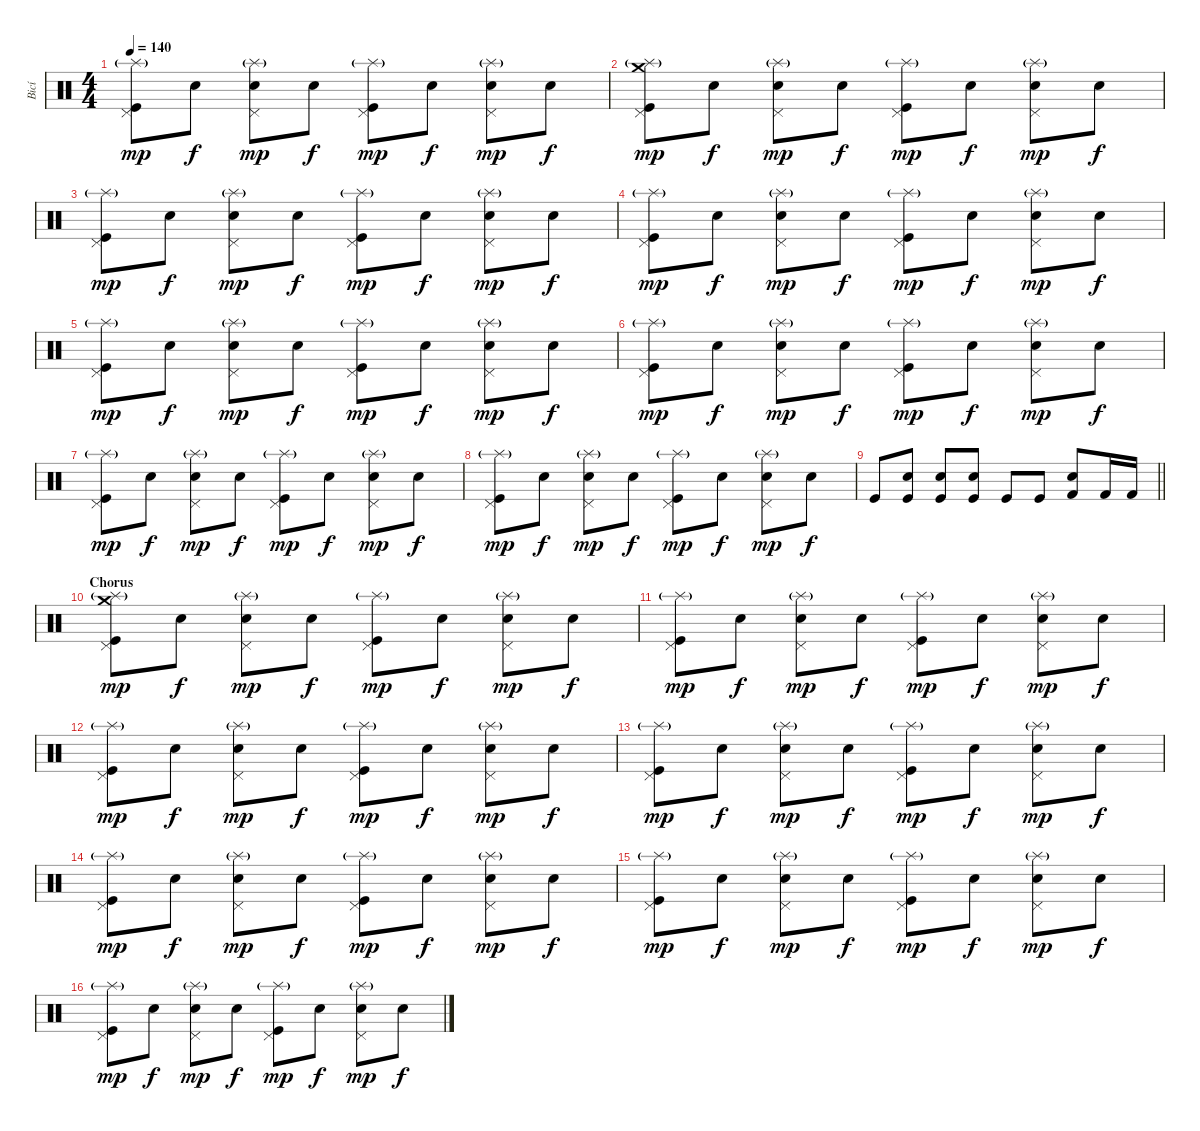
\track ("Bicí" "Bicí") {instrument percussion}
\staff {score}
\articulation defaults
\ts (4 4)
\tempo 140
\clef neutral
\ks c
("Splash (hit)"{g} "Pedal Hi-Hat (hit)" "Kick (hit)").8{dy mp} "Snare (hit)".8{dy f} ("Splash (hit)"{g} "Pedal Hi-Hat (hit)" "Electric Snare (hit)").8{dy mp} "Snare (hit)".8{dy f} ("Splash (hit)"{g} "Pedal Hi-Hat (hit)" "Kick (hit)").8{dy mp} "Snare (hit)".8{dy f} ("Splash (hit)"{g} "Pedal Hi-Hat (hit)" "Electric Snare (hit)").8{dy mp} "Snare (hit)".8{dy f} |
("Crash medium (hit)" "Splash (hit)"{g} "Pedal Hi-Hat (hit)" "Kick (hit)").8{dy mp} "Snare (hit)".8{dy f} ("Splash (hit)"{g} "Pedal Hi-Hat (hit)" "Electric Snare (hit)").8{dy mp} "Snare (hit)".8{dy f} ("Splash (hit)"{g} "Pedal Hi-Hat (hit)" "Kick (hit)").8{dy mp} "Snare (hit)".8{dy f} ("Splash (hit)"{g} "Pedal Hi-Hat (hit)" "Electric Snare (hit)").8{dy mp} "Snare (hit)".8{dy f} |
("Splash (hit)"{g} "Pedal Hi-Hat (hit)" "Kick (hit)").8{dy mp} "Snare (hit)".8{dy f} ("Splash (hit)"{g} "Pedal Hi-Hat (hit)" "Electric Snare (hit)").8{dy mp} "Snare (hit)".8{dy f} ("Splash (hit)"{g} "Pedal Hi-Hat (hit)" "Kick (hit)").8{dy mp} "Snare (hit)".8{dy f} ("Splash (hit)"{g} "Pedal Hi-Hat (hit)" "Electric Snare (hit)").8{dy mp} "Snare (hit)".8{dy f} |
("Splash (hit)"{g} "Pedal Hi-Hat (hit)" "Kick (hit)").8{dy mp} "Snare (hit)".8{dy f} ("Splash (hit)"{g} "Pedal Hi-Hat (hit)" "Electric Snare (hit)").8{dy mp} "Snare (hit)".8{dy f} ("Splash (hit)"{g} "Pedal Hi-Hat (hit)" "Kick (hit)").8{dy mp} "Snare (hit)".8{dy f} ("Splash (hit)"{g} "Pedal Hi-Hat (hit)" "Electric Snare (hit)").8{dy mp} "Snare (hit)".8{dy f} |
("Splash (hit)"{g} "Pedal Hi-Hat (hit)" "Kick (hit)").8{dy mp} "Snare (hit)".8{dy f} ("Splash (hit)"{g} "Pedal Hi-Hat (hit)" "Electric Snare (hit)").8{dy mp} "Snare (hit)".8{dy f} ("Splash (hit)"{g} "Pedal Hi-Hat (hit)" "Kick (hit)").8{dy mp} "Snare (hit)".8{dy f} ("Splash (hit)"{g} "Pedal Hi-Hat (hit)" "Electric Snare (hit)").8{dy mp} "Snare (hit)".8{dy f} |
("Splash (hit)"{g} "Pedal Hi-Hat (hit)" "Kick (hit)").8{dy mp} "Snare (hit)".8{dy f} ("Splash (hit)"{g} "Pedal Hi-Hat (hit)" "Electric Snare (hit)").8{dy mp} "Snare (hit)".8{dy f} ("Splash (hit)"{g} "Pedal Hi-Hat (hit)" "Kick (hit)").8{dy mp} "Snare (hit)".8{dy f} ("Splash (hit)"{g} "Pedal Hi-Hat (hit)" "Electric Snare (hit)").8{dy mp} "Snare (hit)".8{dy f} |
("Splash (hit)"{g} "Pedal Hi-Hat (hit)" "Kick (hit)").8{dy mp} "Snare (hit)".8{dy f} ("Splash (hit)"{g} "Pedal Hi-Hat (hit)" "Electric Snare (hit)").8{dy mp} "Snare (hit)".8{dy f} ("Splash (hit)"{g} "Pedal Hi-Hat (hit)" "Kick (hit)").8{dy mp} "Snare (hit)".8{dy f} ("Splash (hit)"{g} "Pedal Hi-Hat (hit)" "Electric Snare (hit)").8{dy mp} "Snare (hit)".8{dy f} |
("Splash (hit)"{g} "Pedal Hi-Hat (hit)" "Kick (hit)").8{dy mp} "Snare (hit)".8{dy f} ("Splash (hit)"{g} "Pedal Hi-Hat (hit)" "Electric Snare (hit)").8{dy mp} "Snare (hit)".8{dy f} ("Splash (hit)"{g} "Pedal Hi-Hat (hit)" "Kick (hit)").8{dy mp} "Snare (hit)".8{dy f} ("Splash (hit)"{g} "Pedal Hi-Hat (hit)" "Electric Snare (hit)").8{dy mp} "Snare (hit)".8{dy f} |
\barLineRight lightlight "Kick (hit)".8{volume 0}
("Kick (hit)" "Electric Snare (hit)").8{volume 16} ("Kick (hit)" "Electric Snare (hit)").8 ("Kick (hit)" "Electric Snare (hit)").8 "Kick (hit)".8 "Kick (hit)".8 ("Electric Snare (hit)" "Kick (hit) 2").8 "Kick (hit) 2".16 "Kick (hit) 2".16 |
\section ("" "Chorus")
("Crash medium (hit)" "Splash (hit)"{g} "Pedal Hi-Hat (hit)" "Kick (hit)").8{dy mp} "Snare (hit)".8{dy f} ("Splash (hit)"{g} "Pedal Hi-Hat (hit)" "Electric Snare (hit)").8{dy mp} "Snare (hit)".8{dy f} ("Splash (hit)"{g} "Pedal Hi-Hat (hit)" "Kick (hit)").8{dy mp} "Snare (hit)".8{dy f} ("Splash (hit)"{g} "Pedal Hi-Hat (hit)" "Electric Snare (hit)").8{dy mp} "Snare (hit)".8{dy f} |
("Splash (hit)"{g} "Pedal Hi-Hat (hit)" "Kick (hit)").8{dy mp} "Snare (hit)".8{dy f} ("Splash (hit)"{g} "Pedal Hi-Hat (hit)" "Electric Snare (hit)").8{dy mp} "Snare (hit)".8{dy f} ("Splash (hit)"{g} "Pedal Hi-Hat (hit)" "Kick (hit)").8{dy mp} "Snare (hit)".8{dy f} ("Splash (hit)"{g} "Pedal Hi-Hat (hit)" "Electric Snare (hit)").8{dy mp} "Snare (hit)".8{dy f} |
("Splash (hit)"{g} "Pedal Hi-Hat (hit)" "Kick (hit)").8{dy mp} "Snare (hit)".8{dy f} ("Splash (hit)"{g} "Pedal Hi-Hat (hit)" "Electric Snare (hit)").8{dy mp} "Snare (hit)".8{dy f} ("Splash (hit)"{g} "Pedal Hi-Hat (hit)" "Kick (hit)").8{dy mp} "Snare (hit)".8{dy f} ("Splash (hit)"{g} "Pedal Hi-Hat (hit)" "Electric Snare (hit)").8{dy mp} "Snare (hit)".8{dy f} |
("Splash (hit)"{g} "Pedal Hi-Hat (hit)" "Kick (hit)").8{dy mp} "Snare (hit)".8{dy f} ("Splash (hit)"{g} "Pedal Hi-Hat (hit)" "Electric Snare (hit)").8{dy mp} "Snare (hit)".8{dy f} ("Splash (hit)"{g} "Pedal Hi-Hat (hit)" "Kick (hit)").8{dy mp} "Snare (hit)".8{dy f} ("Splash (hit)"{g} "Pedal Hi-Hat (hit)" "Electric Snare (hit)").8{dy mp} "Snare (hit)".8{dy f} |
("Splash (hit)"{g} "Pedal Hi-Hat (hit)" "Kick (hit)").8{dy mp} "Snare (hit)".8{dy f} ("Splash (hit)"{g} "Pedal Hi-Hat (hit)" "Electric Snare (hit)").8{dy mp} "Snare (hit)".8{dy f} ("Splash (hit)"{g} "Pedal Hi-Hat (hit)" "Kick (hit)").8{dy mp} "Snare (hit)".8{dy f} ("Splash (hit)"{g} "Pedal Hi-Hat (hit)" "Electric Snare (hit)").8{dy mp} "Snare (hit)".8{dy f} |
("Splash (hit)"{g} "Pedal Hi-Hat (hit)" "Kick (hit)").8{dy mp} "Snare (hit)".8{dy f} ("Splash (hit)"{g} "Pedal Hi-Hat (hit)" "Electric Snare (hit)").8{dy mp} "Snare (hit)".8{dy f} ("Splash (hit)"{g} "Pedal Hi-Hat (hit)" "Kick (hit)").8{dy mp} "Snare (hit)".8{dy f} ("Splash (hit)"{g} "Pedal Hi-Hat (hit)" "Electric Snare (hit)").8{dy mp} "Snare (hit)".8{dy f} |
("Splash (hit)"{g} "Pedal Hi-Hat (hit)" "Kick (hit)").8{dy mp} "Snare (hit)".8{dy f} ("Splash (hit)"{g} "Pedal Hi-Hat (hit)" "Electric Snare (hit)").8{dy mp} "Snare (hit)".8{dy f} ("Splash (hit)"{g} "Pedal Hi-Hat (hit)" "Kick (hit)").8{dy mp} "Snare (hit)".8{dy f} ("Splash (hit)"{g} "Pedal Hi-Hat (hit)" "Electric Snare (hit)").8{dy mp} "Snare (hit)".8{dy f}
